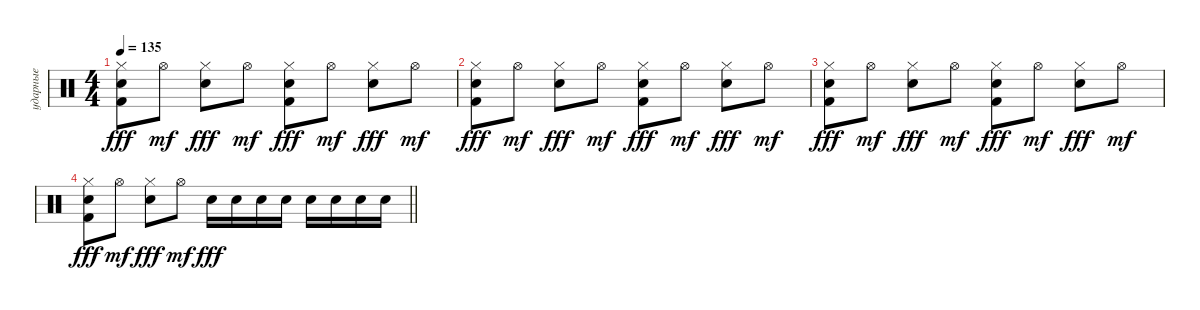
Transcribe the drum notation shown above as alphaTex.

\track ("ударные" "ударные") {instrument percussion}
\staff {score}
\articulation defaults
\ts (4 4)
\tempo 135
\clef neutral
\ks c
("Hi-Hat (closed)" "Electric Snare (hit)" "Kick (hit) 2").8{dy fff} "Hi-Hat (open)".8{dy mf} ("Hi-Hat (closed)" "Snare (hit) 2").8{dy fff} "Hi-Hat (open)".8{dy mf} ("Hi-Hat (closed)" "Electric Snare (hit)" "Kick (hit) 2").8{dy fff} "Hi-Hat (open)".8{dy mf} ("Hi-Hat (closed)" "Snare (hit) 2").8{dy fff} "Hi-Hat (open)".8{dy mf} |
("Hi-Hat (closed)" "Electric Snare (hit)" "Kick (hit) 2").8{dy fff} "Hi-Hat (open)".8{dy mf} ("Hi-Hat (closed)" "Snare (hit) 2").8{dy fff} "Hi-Hat (open)".8{dy mf} ("Hi-Hat (closed)" "Electric Snare (hit)" "Kick (hit) 2").8{dy fff} "Hi-Hat (open)".8{dy mf} ("Hi-Hat (closed)" "Snare (hit) 2").8{dy fff} "Hi-Hat (open)".8{dy mf} |
("Hi-Hat (closed)" "Electric Snare (hit)" "Kick (hit) 2").8{dy fff} "Hi-Hat (open)".8{dy mf} ("Hi-Hat (closed)" "Snare (hit) 2").8{dy fff} "Hi-Hat (open)".8{dy mf} ("Hi-Hat (closed)" "Electric Snare (hit)" "Kick (hit) 2").8{dy fff} "Hi-Hat (open)".8{dy mf} ("Hi-Hat (closed)" "Snare (hit) 2").8{dy fff} "Hi-Hat (open)".8{dy mf} |
\barLineRight lightlight
("Hi-Hat (closed)" "Electric Snare (hit)" "Kick (hit) 2").8{dy fff} "Hi-Hat (open)".8{dy mf} ("Hi-Hat (closed)" "Snare (hit) 2").8{dy fff} "Hi-Hat (open)".8{dy mf} "Snare (hit) 2".16{dy fff} "Snare (hit) 2".16 "Snare (hit) 2".16 "Snare (hit) 2".16 "Snare (hit) 2".16 "Snare (hit) 2".16 "Snare (hit) 2".16 "Snare (hit) 2".16
